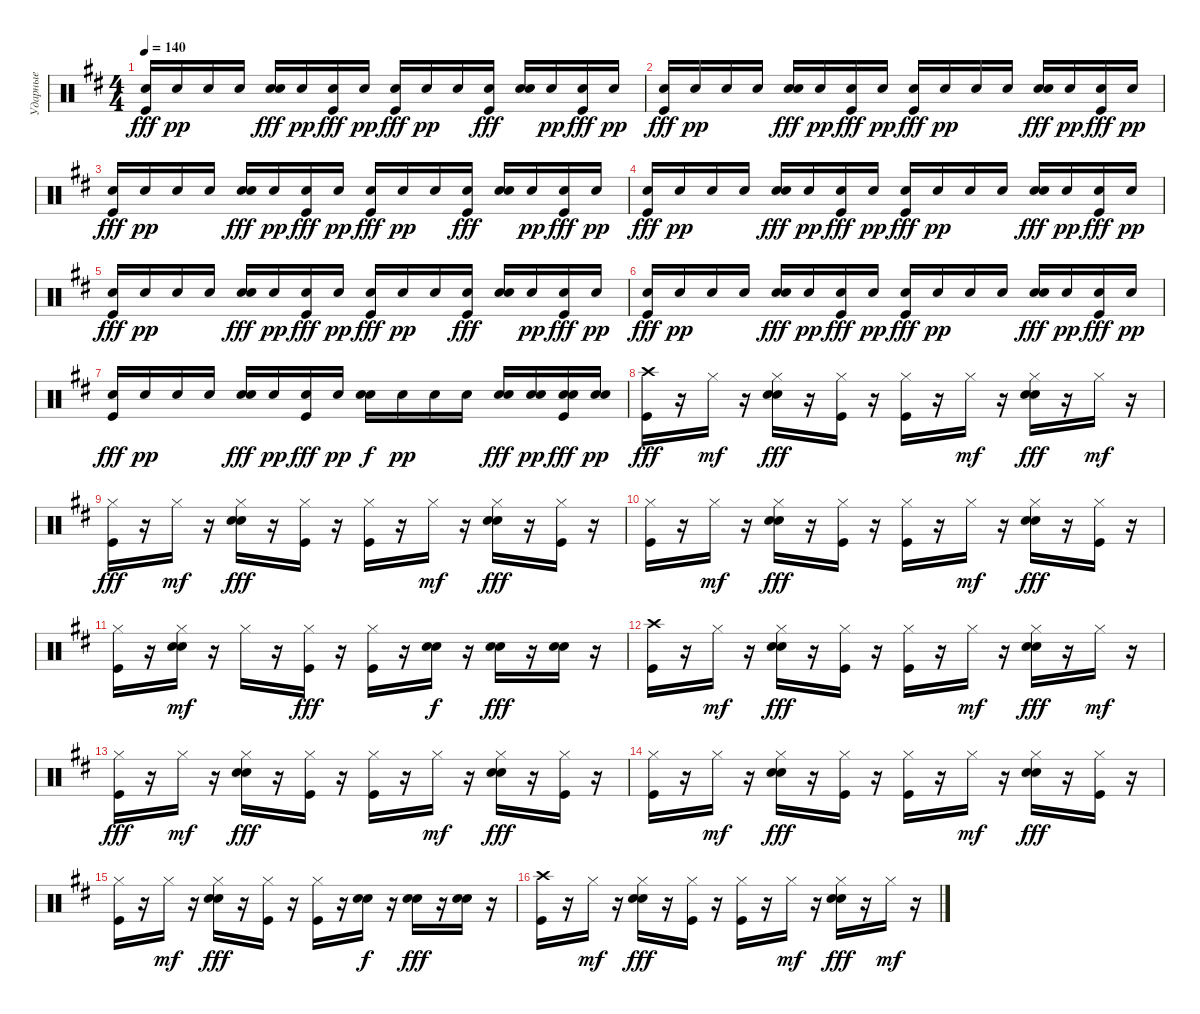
\track ("Ударные" "Ударные") {instrument percussion}
\staff {score}
\articulation defaults
\ts (4 4)
\tempo 140
\clef neutral
\ks d
("Electric Snare (hit)" "Kick (hit)").16{dy fff} "Electric Snare (hit)".16{dy pp} "Electric Snare (hit)".16 "Electric Snare (hit)".16 ("Electric Snare (hit)" "Electric Snare (hit)").16{dy fff} "Electric Snare (hit)".16{dy pp} ("Electric Snare (hit)" "Kick (hit)").16{dy fff} "Electric Snare (hit)".16{dy pp} ("Electric Snare (hit)" "Kick (hit)").16{dy fff} "Electric Snare (hit)".16{dy pp} "Electric Snare (hit)".16 ("Electric Snare (hit)" "Kick (hit)").16{dy fff} ("Electric Snare (hit)" "Electric Snare (hit)").16 "Electric Snare (hit)".16{dy pp} ("Electric Snare (hit)" "Kick (hit)").16{dy fff} "Electric Snare (hit)".16{dy pp} |
("Electric Snare (hit)" "Kick (hit)").16{dy fff} "Electric Snare (hit)".16{dy pp} "Electric Snare (hit)".16 "Electric Snare (hit)".16 ("Electric Snare (hit)" "Electric Snare (hit)").16{dy fff} "Electric Snare (hit)".16{dy pp} ("Electric Snare (hit)" "Kick (hit)").16{dy fff} "Electric Snare (hit)".16{dy pp} ("Electric Snare (hit)" "Kick (hit)").16{dy fff} "Electric Snare (hit)".16{dy pp} "Electric Snare (hit)".16 "Electric Snare (hit)".16 ("Electric Snare (hit)" "Electric Snare (hit)").16{dy fff} "Electric Snare (hit)".16{dy pp} ("Electric Snare (hit)" "Kick (hit)").16{dy fff} "Electric Snare (hit)".16{dy pp} |
("Electric Snare (hit)" "Kick (hit)").16{dy fff} "Electric Snare (hit)".16{dy pp} "Electric Snare (hit)".16 "Electric Snare (hit)".16 ("Electric Snare (hit)" "Electric Snare (hit)").16{dy fff} "Electric Snare (hit)".16{dy pp} ("Electric Snare (hit)" "Kick (hit)").16{dy fff} "Electric Snare (hit)".16{dy pp} ("Electric Snare (hit)" "Kick (hit)").16{dy fff} "Electric Snare (hit)".16{dy pp} "Electric Snare (hit)".16 ("Electric Snare (hit)" "Kick (hit)").16{dy fff} ("Electric Snare (hit)" "Electric Snare (hit)").16 "Electric Snare (hit)".16{dy pp} ("Electric Snare (hit)" "Kick (hit)").16{dy fff} "Electric Snare (hit)".16{dy pp} |
("Electric Snare (hit)" "Kick (hit)").16{dy fff} "Electric Snare (hit)".16{dy pp} "Electric Snare (hit)".16 "Electric Snare (hit)".16 ("Electric Snare (hit)" "Electric Snare (hit)").16{dy fff} "Electric Snare (hit)".16{dy pp} ("Electric Snare (hit)" "Kick (hit)").16{dy fff} "Electric Snare (hit)".16{dy pp} ("Electric Snare (hit)" "Kick (hit)").16{dy fff} "Electric Snare (hit)".16{dy pp} "Electric Snare (hit)".16 "Electric Snare (hit)".16 ("Electric Snare (hit)" "Electric Snare (hit)").16{dy fff} "Electric Snare (hit)".16{dy pp} ("Electric Snare (hit)" "Kick (hit)").16{dy fff} "Electric Snare (hit)".16{dy pp} |
("Electric Snare (hit)" "Kick (hit)").16{dy fff} "Electric Snare (hit)".16{dy pp} "Electric Snare (hit)".16 "Electric Snare (hit)".16 ("Electric Snare (hit)" "Electric Snare (hit)").16{dy fff} "Electric Snare (hit)".16{dy pp} ("Electric Snare (hit)" "Kick (hit)").16{dy fff} "Electric Snare (hit)".16{dy pp} ("Electric Snare (hit)" "Kick (hit)").16{dy fff} "Electric Snare (hit)".16{dy pp} "Electric Snare (hit)".16 ("Electric Snare (hit)" "Kick (hit)").16{dy fff} ("Electric Snare (hit)" "Electric Snare (hit)").16 "Electric Snare (hit)".16{dy pp} ("Electric Snare (hit)" "Kick (hit)").16{dy fff} "Electric Snare (hit)".16{dy pp} |
("Electric Snare (hit)" "Kick (hit)").16{dy fff} "Electric Snare (hit)".16{dy pp} "Electric Snare (hit)".16 "Electric Snare (hit)".16 ("Electric Snare (hit)" "Electric Snare (hit)").16{dy fff} "Electric Snare (hit)".16{dy pp} ("Electric Snare (hit)" "Kick (hit)").16{dy fff} "Electric Snare (hit)".16{dy pp} ("Electric Snare (hit)" "Kick (hit)").16{dy fff} "Electric Snare (hit)".16{dy pp} "Electric Snare (hit)".16 "Electric Snare (hit)".16 ("Electric Snare (hit)" "Electric Snare (hit)").16{dy fff} "Electric Snare (hit)".16{dy pp} ("Electric Snare (hit)" "Kick (hit)").16{dy fff} "Electric Snare (hit)".16{dy pp} |
("Electric Snare (hit)" "Kick (hit)").16{dy fff} "Electric Snare (hit)".16{dy pp} "Electric Snare (hit)".16 "Electric Snare (hit)".16 ("Electric Snare (hit)" "Electric Snare (hit)").16{dy fff} "Electric Snare (hit)".16{dy pp} ("Electric Snare (hit)" "Kick (hit)").16{dy fff} "Electric Snare (hit)".16{dy pp} ("Electric Snare (hit)" "Electric Snare (hit)").16{dy f} "Electric Snare (hit)".16{dy pp} "Electric Snare (hit)".16 "Electric Snare (hit)".16 ("Electric Snare (hit)" "Electric Snare (hit)").16{dy fff} ("Electric Snare (hit)" "Electric Snare (hit)").16{dy pp} ("Electric Snare (hit)" "Electric Snare (hit)" "Kick (hit)").16{dy fff} ("Electric Snare (hit)" "Electric Snare (hit)").16{dy pp} |
("Crash high (hit)" "Kick (hit)").16{dy fff} r.16 "Hi-Hat (closed)".16{dy mf} r.16 ("Hi-Hat (closed)" "Electric Snare (hit)" "Electric Snare (hit)").16{dy fff} r.16 ("Hi-Hat (closed)" "Kick (hit)").16 r.16 ("Hi-Hat (closed)" "Kick (hit)").16 r.16 "Hi-Hat (closed)".16{dy mf} r.16 ("Hi-Hat (closed)" "Electric Snare (hit)" "Electric Snare (hit)").16{dy fff} r.16 "Hi-Hat (closed)".16{dy mf} r.16 |
("Hi-Hat (closed)" "Kick (hit)").16{dy fff} r.16 "Hi-Hat (closed)".16{dy mf} r.16 ("Hi-Hat (closed)" "Electric Snare (hit)" "Electric Snare (hit)").16{dy fff} r.16 ("Hi-Hat (closed)" "Kick (hit)").16 r.16 ("Hi-Hat (closed)" "Kick (hit)").16 r.16 "Hi-Hat (closed)".16{dy mf} r.16 ("Hi-Hat (closed)" "Electric Snare (hit)" "Electric Snare (hit)").16{dy fff} r.16 ("Hi-Hat (closed)" "Kick (hit)").16 r.16 |
("Hi-Hat (closed)" "Kick (hit)").16 r.16 "Hi-Hat (closed)".16{dy mf} r.16 ("Hi-Hat (closed)" "Electric Snare (hit)" "Electric Snare (hit)").16{dy fff} r.16 ("Hi-Hat (closed)" "Kick (hit)").16 r.16 ("Hi-Hat (closed)" "Kick (hit)").16 r.16 "Hi-Hat (closed)".16{dy mf} r.16 ("Hi-Hat (closed)" "Electric Snare (hit)" "Electric Snare (hit)").16{dy fff} r.16 ("Hi-Hat (closed)" "Kick (hit)").16 r.16 |
("Hi-Hat (closed)" "Kick (hit)").16 r.16 ("Hi-Hat (closed)" "Electric Snare (hit)" "Electric Snare (hit)").16{dy mf} r.16 "Hi-Hat (closed)".16 r.16 ("Hi-Hat (closed)" "Kick (hit)").16{dy fff} r.16 ("Hi-Hat (closed)" "Kick (hit)").16 r.16 ("Electric Snare (hit)" "Electric Snare (hit)").16{dy f} r.16 ("Electric Snare (hit)" "Electric Snare (hit)").16{dy fff} r.16 ("Electric Snare (hit)" "Electric Snare (hit)").16 r.16 |
("Crash high (hit)" "Kick (hit)").16 r.16 "Hi-Hat (closed)".16{dy mf} r.16 ("Hi-Hat (closed)" "Electric Snare (hit)" "Electric Snare (hit)").16{dy fff} r.16 ("Hi-Hat (closed)" "Kick (hit)").16 r.16 ("Hi-Hat (closed)" "Kick (hit)").16 r.16 "Hi-Hat (closed)".16{dy mf} r.16 ("Hi-Hat (closed)" "Electric Snare (hit)" "Electric Snare (hit)").16{dy fff} r.16 "Hi-Hat (closed)".16{dy mf} r.16 |
("Hi-Hat (closed)" "Kick (hit)").16{dy fff} r.16 "Hi-Hat (closed)".16{dy mf} r.16 ("Hi-Hat (closed)" "Electric Snare (hit)" "Electric Snare (hit)").16{dy fff} r.16 ("Hi-Hat (closed)" "Kick (hit)").16 r.16 ("Hi-Hat (closed)" "Kick (hit)").16 r.16 "Hi-Hat (closed)".16{dy mf} r.16 ("Hi-Hat (closed)" "Electric Snare (hit)" "Electric Snare (hit)").16{dy fff} r.16 ("Hi-Hat (closed)" "Kick (hit)").16 r.16 |
("Hi-Hat (closed)" "Kick (hit)").16 r.16 "Hi-Hat (closed)".16{dy mf} r.16 ("Hi-Hat (closed)" "Electric Snare (hit)" "Electric Snare (hit)").16{dy fff} r.16 ("Hi-Hat (closed)" "Kick (hit)").16 r.16 ("Hi-Hat (closed)" "Kick (hit)").16 r.16 "Hi-Hat (closed)".16{dy mf} r.16 ("Hi-Hat (closed)" "Electric Snare (hit)" "Electric Snare (hit)").16{dy fff} r.16 ("Hi-Hat (closed)" "Kick (hit)").16 r.16 |
("Hi-Hat (closed)" "Kick (hit)").16 r.16 "Hi-Hat (closed)".16{dy mf} r.16 ("Hi-Hat (closed)" "Electric Snare (hit)" "Electric Snare (hit)").16{dy fff} r.16 ("Hi-Hat (closed)" "Kick (hit)").16 r.16 ("Hi-Hat (closed)" "Kick (hit)").16 r.16 ("Electric Snare (hit)" "Electric Snare (hit)").16{dy f} r.16 ("Electric Snare (hit)" "Electric Snare (hit)").16{dy fff} r.16 ("Electric Snare (hit)" "Electric Snare (hit)").16 r.16 |
("Crash high (hit)" "Kick (hit)").16 r.16 "Hi-Hat (closed)".16{dy mf} r.16 ("Hi-Hat (closed)" "Electric Snare (hit)" "Electric Snare (hit)").16{dy fff} r.16 ("Hi-Hat (closed)" "Kick (hit)").16 r.16 ("Hi-Hat (closed)" "Kick (hit)").16 r.16 "Hi-Hat (closed)".16{dy mf} r.16 ("Hi-Hat (closed)" "Electric Snare (hit)" "Electric Snare (hit)").16{dy fff} r.16 "Hi-Hat (closed)".16{dy mf} r.16
